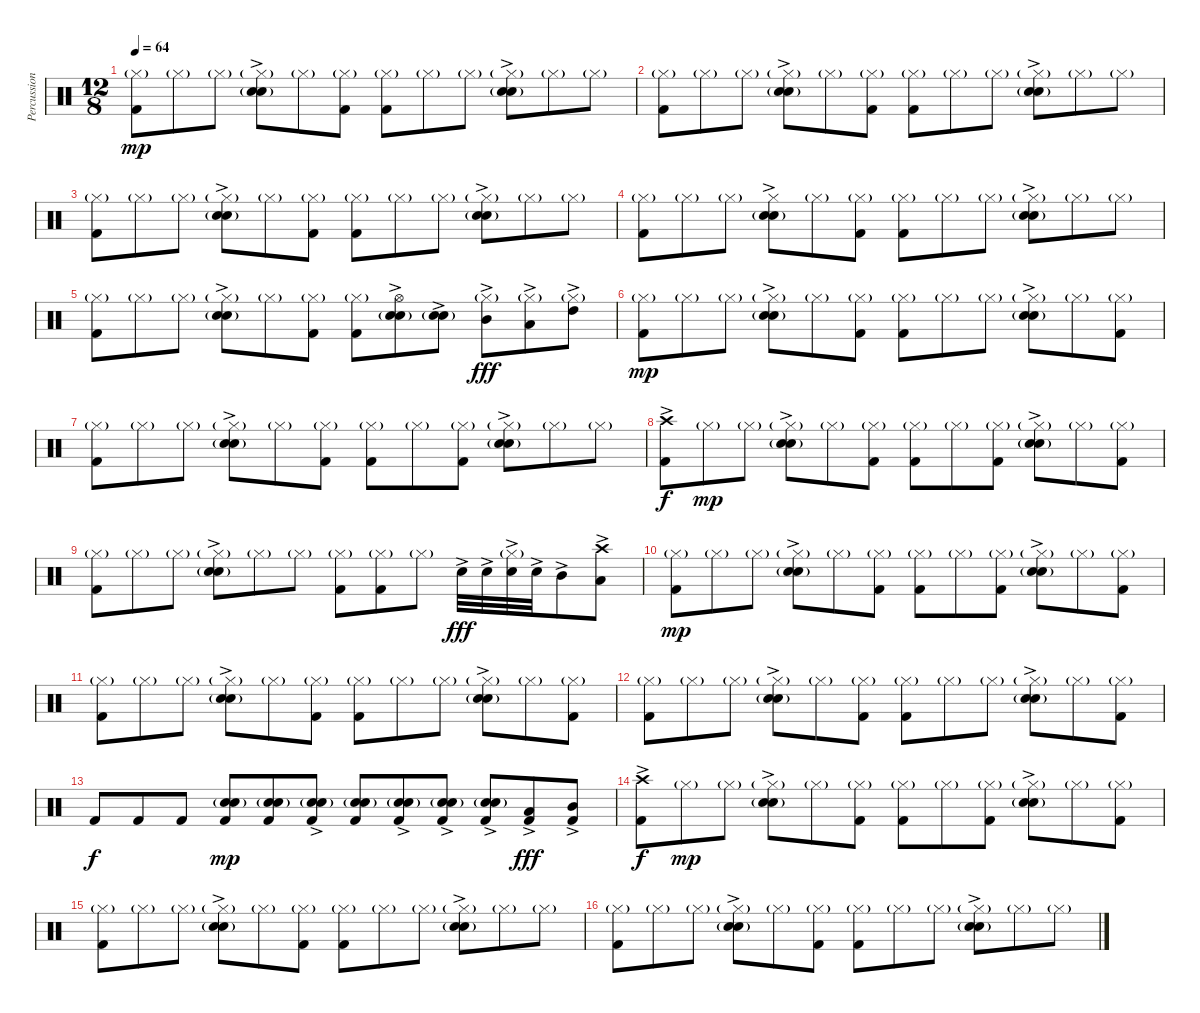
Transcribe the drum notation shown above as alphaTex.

\track ("Percussion" "Percussion") {instrument percussion}
\staff {score}
\articulation defaults
\ts (12 8)
\tempo 64
\clef neutral
\ks c
("Hi-Hat (closed)"{g} "Kick (hit) 2").8{dy mp} "Hi-Hat (closed)"{g}.8 "Hi-Hat (closed)"{g}.8 ("Hi-Hat (closed)"{g} "Electric Snare (hit)"{ac} "Snare (hit) 2"{g}).8 "Hi-Hat (closed)"{g}.8 ("Hi-Hat (closed)"{g} "Kick (hit) 2").8 ("Hi-Hat (closed)"{g} "Kick (hit) 2").8 "Hi-Hat (closed)"{g}.8 "Hi-Hat (closed)"{g}.8 ("Hi-Hat (closed)"{g} "Electric Snare (hit)"{ac} "Snare (hit) 2"{g}).8 "Hi-Hat (closed)"{g}.8 "Hi-Hat (closed)"{g}.8 |
("Hi-Hat (closed)"{g} "Kick (hit) 2").8 "Hi-Hat (closed)"{g}.8 "Hi-Hat (closed)"{g}.8 ("Hi-Hat (closed)"{g} "Electric Snare (hit)"{ac} "Snare (hit) 2"{g}).8 "Hi-Hat (closed)"{g}.8 ("Hi-Hat (closed)"{g} "Kick (hit) 2").8 ("Hi-Hat (closed)"{g} "Kick (hit) 2").8 "Hi-Hat (closed)"{g}.8 "Hi-Hat (closed)"{g}.8 ("Hi-Hat (closed)"{g} "Electric Snare (hit)"{ac} "Snare (hit) 2"{g}).8 "Hi-Hat (closed)"{g}.8 "Hi-Hat (closed)"{g}.8 |
("Hi-Hat (closed)"{g} "Kick (hit) 2").8 "Hi-Hat (closed)"{g}.8 "Hi-Hat (closed)"{g}.8 ("Hi-Hat (closed)"{g} "Electric Snare (hit)"{ac} "Snare (hit) 2"{g}).8 "Hi-Hat (closed)"{g}.8 ("Hi-Hat (closed)"{g} "Kick (hit) 2").8 ("Hi-Hat (closed)"{g} "Kick (hit) 2").8 "Hi-Hat (closed)"{g}.8 "Hi-Hat (closed)"{g}.8 ("Hi-Hat (closed)"{g} "Electric Snare (hit)"{ac} "Snare (hit) 2"{g}).8 "Hi-Hat (closed)"{g}.8 "Hi-Hat (closed)"{g}.8 |
("Hi-Hat (closed)"{g} "Kick (hit) 2").8 "Hi-Hat (closed)"{g}.8 "Hi-Hat (closed)"{g}.8 ("Hi-Hat (closed)" "Electric Snare (hit)"{ac} "Snare (hit) 2"{g}).8 "Hi-Hat (closed)"{g}.8 ("Hi-Hat (closed)"{g} "Kick (hit) 2").8 ("Hi-Hat (closed)"{g} "Kick (hit) 2").8 "Hi-Hat (closed)"{g}.8 "Hi-Hat (closed)"{g}.8 ("Hi-Hat (closed)"{g} "Electric Snare (hit)"{ac} "Snare (hit) 2"{g}).8 "Hi-Hat (closed)"{g}.8 "Hi-Hat (closed)"{g}.8 |
("Hi-Hat (closed)"{g} "Kick (hit) 2").8 "Hi-Hat (closed)"{g}.8 "Hi-Hat (closed)"{g}.8 ("Hi-Hat (closed)"{g ac} "Electric Snare (hit)"{ac} "Snare (hit) 2"{g}).8 "Hi-Hat (closed)"{g}.8 ("Hi-Hat (closed)"{g} "Kick (hit) 2").8 ("Hi-Hat (closed)"{g} "Kick (hit) 2").8 ("Hi-Hat (open)"{ac} "Electric Snare (hit)"{ac} "Snare (hit) 2"{g}).8 ("Electric Snare (hit)"{ac} "Snare (hit) 2"{g}).8 ("Hi-Hat (closed)"{g} "Mid Tom (hit)"{ac}).8{dy fff} ("Hi-Hat (closed)"{g} "Low Tom (hit)"{ac}).8 ("Hi-Hat (closed)"{g} "High Tom (hit)"{ac}).8 |
("Hi-Hat (closed)"{g} "Kick (hit) 2").8{dy mp} "Hi-Hat (closed)"{g}.8 "Hi-Hat (closed)"{g}.8 ("Hi-Hat (closed)"{g} "Electric Snare (hit)"{ac} "Snare (hit) 2"{g}).8 "Hi-Hat (closed)"{g}.8 ("Hi-Hat (closed)"{g} "Kick (hit) 2").8 ("Hi-Hat (closed)"{g} "Kick (hit) 2").8 "Hi-Hat (closed)"{g}.8 "Hi-Hat (closed)"{g}.8 ("Hi-Hat (closed)"{g ac} "Electric Snare (hit)"{ac} "Snare (hit) 2"{g}).8 "Hi-Hat (closed)"{g}.8 ("Hi-Hat (closed)"{g} "Kick (hit) 2").8 |
("Hi-Hat (closed)"{g} "Kick (hit) 2").8 "Hi-Hat (closed)"{g}.8 "Hi-Hat (closed)"{g}.8 ("Hi-Hat (closed)"{g ac} "Electric Snare (hit)"{ac} "Snare (hit) 2"{g}).8 "Hi-Hat (closed)"{g}.8 ("Hi-Hat (closed)"{g} "Kick (hit) 2").8 ("Hi-Hat (closed)"{g} "Kick (hit) 2").8 "Hi-Hat (closed)"{g}.8 ("Hi-Hat (closed)"{g} "Kick (hit) 2").8 ("Hi-Hat (closed)"{g ac} "Electric Snare (hit)"{ac} "Snare (hit) 2"{g}).8 "Hi-Hat (closed)"{g}.8 "Hi-Hat (closed)"{g}.8 |
("Crash high (hit)"{ac} "Kick (hit) 2").8{dy f} "Hi-Hat (closed)"{g}.8{dy mp} "Hi-Hat (closed)"{g}.8 ("Hi-Hat (closed)"{g ac} "Electric Snare (hit)"{ac} "Snare (hit) 2"{g}).8 "Hi-Hat (closed)"{g}.8 ("Hi-Hat (closed)"{g} "Kick (hit) 2").8 ("Hi-Hat (closed)"{g} "Kick (hit) 2").8 "Hi-Hat (closed)"{g}.8 ("Hi-Hat (closed)"{g} "Kick (hit) 2").8 ("Hi-Hat (closed)"{g ac} "Electric Snare (hit)"{ac} "Snare (hit) 2"{g}).8 "Hi-Hat (closed)"{g}.8 ("Hi-Hat (closed)"{g} "Kick (hit) 2").8 |
("Hi-Hat (closed)"{g} "Kick (hit) 2").8 "Hi-Hat (closed)"{g}.8 "Hi-Hat (closed)"{g}.8 ("Hi-Hat (closed)"{g} "Electric Snare (hit)"{ac} "Snare (hit) 2"{g}).8 "Hi-Hat (closed)"{g}.8 "Hi-Hat (closed)"{g}.8 ("Hi-Hat (closed)"{g} "Kick (hit) 2").8 ("Hi-Hat (closed)"{g} "Kick (hit) 2").8 "Hi-Hat (closed)"{g}.8 "Electric Snare (hit)"{ac}.32{dy fff} "Electric Snare (hit)"{ac}.32 ("Hi-Hat (closed)"{g ac} "Electric Snare (hit)"{ac}).32 "Electric Snare (hit)"{ac}.32 "Mid Tom (hit)"{ac}.8 ("Crash high (hit)" "Low Tom (hit)"{ac}).8 |
("Hi-Hat (closed)"{g} "Kick (hit) 2").8{dy mp} "Hi-Hat (closed)"{g}.8 "Hi-Hat (closed)"{g}.8 ("Hi-Hat (closed)"{g ac} "Electric Snare (hit)"{ac} "Snare (hit) 2"{g}).8 "Hi-Hat (closed)"{g}.8 ("Hi-Hat (closed)"{g} "Kick (hit) 2").8 ("Hi-Hat (closed)"{g} "Kick (hit) 2").8 "Hi-Hat (closed)"{g}.8 ("Hi-Hat (closed)"{g} "Kick (hit) 2").8 ("Hi-Hat (closed)"{g ac} "Electric Snare (hit)"{ac} "Snare (hit) 2"{g}).8 "Hi-Hat (closed)"{g}.8 ("Hi-Hat (closed)"{g} "Kick (hit) 2").8 |
("Hi-Hat (closed)"{g} "Kick (hit) 2").8 "Hi-Hat (closed)"{g}.8 "Hi-Hat (closed)"{g}.8 ("Hi-Hat (closed)"{g ac} "Electric Snare (hit)"{ac} "Snare (hit) 2"{g}).8 "Hi-Hat (closed)"{g}.8 ("Hi-Hat (closed)"{g} "Kick (hit) 2").8 ("Hi-Hat (closed)"{g} "Kick (hit) 2").8 "Hi-Hat (closed)"{g}.8 "Hi-Hat (closed)"{g}.8 ("Hi-Hat (closed)"{g ac} "Electric Snare (hit)"{ac} "Snare (hit) 2"{g}).8 "Hi-Hat (closed)"{g}.8 ("Hi-Hat (closed)"{g} "Kick (hit) 2").8 |
("Hi-Hat (closed)"{g} "Kick (hit) 2").8 "Hi-Hat (closed)"{g}.8 "Hi-Hat (closed)"{g}.8 ("Hi-Hat (closed)"{g} "Electric Snare (hit)"{ac} "Snare (hit) 2"{g}).8 "Hi-Hat (closed)"{g}.8 ("Hi-Hat (closed)"{g} "Kick (hit) 2").8 ("Hi-Hat (closed)"{g} "Kick (hit) 2").8 "Hi-Hat (closed)"{g}.8 "Hi-Hat (closed)"{g}.8 ("Hi-Hat (closed)"{g ac} "Electric Snare (hit)"{ac} "Snare (hit) 2"{g}).8 "Hi-Hat (closed)"{g}.8 ("Hi-Hat (closed)"{g} "Kick (hit) 2").8 |
"Kick (hit) 2".8{dy f} "Kick (hit) 2".8 "Kick (hit) 2".8 ("Electric Snare (hit)"{g} "Snare (hit) 2"{g} "Kick (hit) 2").8{dy mp} ("Electric Snare (hit)"{g} "Snare (hit) 2"{g} "Kick (hit) 2").8 ("Electric Snare (hit)"{g ac} "Snare (hit) 2"{g} "Kick (hit) 2").8 ("Electric Snare (hit)" "Snare (hit) 2"{g} "Kick (hit) 2").8 ("Electric Snare (hit)"{ac} "Snare (hit) 2"{g} "Kick (hit) 2").8 ("Electric Snare (hit)"{ac} "Snare (hit) 2"{g} "Kick (hit) 2").8 ("Electric Snare (hit)"{ac} "Snare (hit) 2"{g} "Kick (hit) 2").8 ("Low Tom (hit)"{ac} "Kick (hit) 2").8{dy fff} ("Mid Tom (hit)"{ac} "Kick (hit) 2").8 |
("Crash high (hit)"{ac} "Kick (hit) 2").8{dy f} "Hi-Hat (closed)"{g}.8{dy mp} "Hi-Hat (closed)"{g}.8 ("Hi-Hat (closed)"{g ac} "Electric Snare (hit)"{ac} "Snare (hit) 2"{g}).8 "Hi-Hat (closed)"{g}.8 ("Hi-Hat (closed)"{g} "Kick (hit) 2").8 ("Hi-Hat (closed)"{g} "Kick (hit) 2").8 "Hi-Hat (closed)"{g}.8 ("Hi-Hat (closed)"{g} "Kick (hit) 2").8 ("Hi-Hat (closed)"{g ac} "Electric Snare (hit)"{ac} "Snare (hit) 2"{g}).8 "Hi-Hat (closed)"{g}.8 ("Hi-Hat (closed)"{g} "Kick (hit) 2").8 |
("Hi-Hat (closed)"{g} "Kick (hit) 2").8 "Hi-Hat (closed)"{g}.8 "Hi-Hat (closed)"{g}.8 ("Hi-Hat (closed)"{g} "Electric Snare (hit)"{ac} "Snare (hit) 2"{g}).8 "Hi-Hat (closed)"{g}.8 ("Hi-Hat (closed)"{g} "Kick (hit) 2").8 ("Hi-Hat (closed)"{g} "Kick (hit) 2").8 "Hi-Hat (closed)"{g}.8 "Hi-Hat (closed)"{g}.8 ("Hi-Hat (closed)"{g} "Electric Snare (hit)"{ac} "Snare (hit) 2"{g}).8 "Hi-Hat (closed)"{g}.8 "Hi-Hat (closed)"{g}.8 |
("Hi-Hat (closed)"{g} "Kick (hit) 2").8 "Hi-Hat (closed)"{g}.8 "Hi-Hat (closed)"{g}.8 ("Hi-Hat (closed)"{g} "Electric Snare (hit)"{ac} "Snare (hit) 2"{g}).8 "Hi-Hat (closed)"{g}.8 ("Hi-Hat (closed)"{g} "Kick (hit) 2").8 ("Hi-Hat (closed)"{g} "Kick (hit) 2").8 "Hi-Hat (closed)"{g}.8 "Hi-Hat (closed)"{g}.8 ("Hi-Hat (closed)"{g} "Electric Snare (hit)"{ac} "Snare (hit) 2"{g}).8 "Hi-Hat (closed)"{g}.8 "Hi-Hat (closed)"{g}.8
